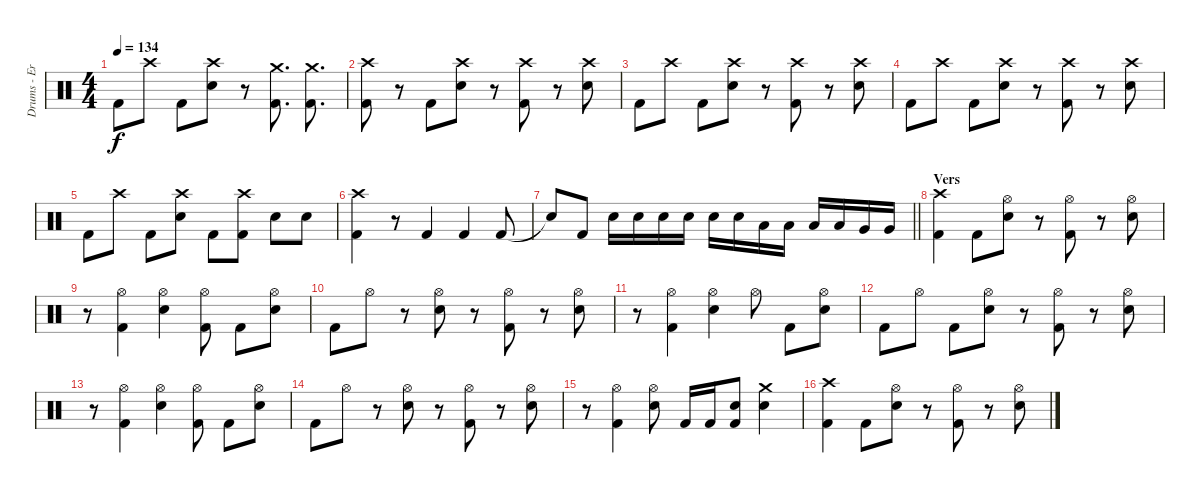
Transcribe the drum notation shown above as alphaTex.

\track ("Drums - Eric Young" "Drums - Er") {instrument percussion}
\staff {score}
\articulation defaults
\ts (4 4)
\tempo 134
\clef neutral
\ks c "Kick (hit) 2".8{dy f} "Crash high (hit)".8 "Kick (hit) 2".8
("Crash high (hit)" "Electric Snare (hit)").8 r.8 ("Crash medium (hit)" "Kick (hit) 2").8{d} ("Crash medium (hit)" "Kick (hit) 2").8{d} |
("Crash high (hit)" "Kick (hit) 2").8 r.8 "Kick (hit) 2".8 ("Crash high (hit)" "Electric Snare (hit)").8 r.8 ("Crash high (hit)" "Kick (hit) 2").8 r.8 ("Crash high (hit)" "Electric Snare (hit)").8 |
"Kick (hit) 2".8 "Crash high (hit)".8 "Kick (hit) 2".8 ("Crash high (hit)" "Electric Snare (hit)").8 r.8 ("Crash high (hit)" "Kick (hit) 2").8 r.8 ("Crash high (hit)" "Electric Snare (hit)").8 |
"Kick (hit) 2".8 "Crash high (hit)".8 "Kick (hit) 2".8 ("Crash high (hit)" "Electric Snare (hit)").8 r.8 ("Crash high (hit)" "Kick (hit) 2").8 r.8 ("Crash high (hit)" "Electric Snare (hit)").8 |
"Kick (hit) 2".8 "Crash high (hit)".8 "Kick (hit) 2".8 ("Crash high (hit)" "Electric Snare (hit)").8 "Kick (hit) 2".8 ("Crash high (hit)" "Kick (hit) 2").8 "Electric Snare (hit)".8 "Electric Snare (hit)".8 |
("Crash high (hit)" "Kick (hit) 2").4 r.8 "Kick (hit) 2".4 "Kick (hit) 2".4 "Kick (hit) 2".8 |
\barLineRight lightlight "Snare (hit)"{t}.8 "Kick (hit) 2".8 "Electric Snare (hit)".16 "Electric Snare (hit)".16 "Electric Snare (hit)".16 "Electric Snare (hit)".16 "Electric Snare (hit)".16 "Electric Snare (hit)".16 "Low Tom (hit)".16 "Low Tom (hit)".16 "Low Tom (hit)".16 "Low Tom (hit)".16 "Very Low Tom (hit)".16 "Very Low Tom (hit)".16
|
\section ("" "Vers")
("Crash high (hit)" "Kick (hit) 2").4 "Kick (hit) 2".8 ("Hi-Hat (open)" "Electric Snare (hit)").8 r.8 ("Hi-Hat (open)" "Kick (hit) 2").8 r.8 ("Hi-Hat (open)" "Electric Snare (hit)").8 |
r.8 ("Hi-Hat (open)" "Kick (hit) 2").4 ("Hi-Hat (open)" "Electric Snare (hit)").4 ("Hi-Hat (open)" "Kick (hit) 2").8 "Kick (hit) 2".8 ("Hi-Hat (open)" "Electric Snare (hit)").8 |
"Kick (hit) 2".8 "Hi-Hat (open)".8 r.8 ("Hi-Hat (open)" "Electric Snare (hit)").8 r.8 ("Hi-Hat (open)" "Kick (hit) 2").8 r.8 ("Hi-Hat (open)" "Electric Snare (hit)").8 |
r.8 ("Hi-Hat (open)" "Kick (hit) 2").4 ("Hi-Hat (open)" "Electric Snare (hit)").4 "Hi-Hat (open)".8 "Kick (hit) 2".8 ("Hi-Hat (open)" "Electric Snare (hit)").8 |
"Kick (hit) 2".8 "Hi-Hat (open)".8 "Kick (hit) 2".8 ("Hi-Hat (open)" "Electric Snare (hit)").8 r.8 ("Hi-Hat (open)" "Kick (hit) 2").8 r.8 ("Hi-Hat (open)" "Electric Snare (hit)").8 |
r.8 ("Hi-Hat (open)" "Kick (hit) 2").4 ("Hi-Hat (open)" "Electric Snare (hit)").4 ("Hi-Hat (open)" "Kick (hit) 2").8 "Kick (hit) 2".8 ("Hi-Hat (open)" "Electric Snare (hit)").8 |
"Kick (hit) 2".8 "Hi-Hat (open)".8 r.8 ("Hi-Hat (open)" "Electric Snare (hit)").8 r.8 ("Hi-Hat (open)" "Kick (hit) 2").8 r.8 ("Hi-Hat (open)" "Electric Snare (hit)").8 |
r.8 ("Hi-Hat (open)" "Kick (hit) 2").4 ("Hi-Hat (open)" "Electric Snare (hit)").8 "Kick (hit) 2".16 "Kick (hit) 2".16 ("Electric Snare (hit)" "Kick (hit) 2").8 ("Crash medium (hit)" "Electric Snare (hit)").4 |
("Crash high (hit)" "Kick (hit) 2").4 "Kick (hit) 2".8 ("Hi-Hat (open)" "Electric Snare (hit)").8 r.8 ("Hi-Hat (open)" "Kick (hit) 2").8 r.8 ("Hi-Hat (open)" "Electric Snare (hit)").8
